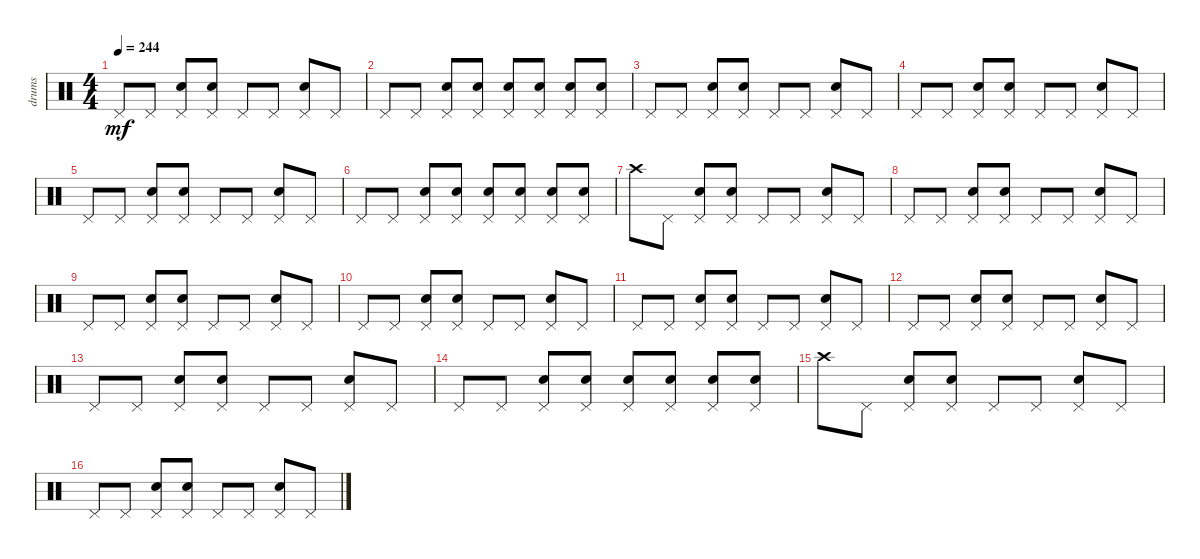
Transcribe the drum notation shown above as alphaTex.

\track ("drums" "drums") {instrument percussion}
\staff {score}
\articulation defaults
\ts (4 4)
\tempo 244
\clef neutral
\ks c "Pedal Hi-Hat (hit)".8{dy mf} "Pedal Hi-Hat (hit)".8
("Pedal Hi-Hat (hit)" "Snare (hit) 2").8 ("Pedal Hi-Hat (hit)" "Snare (hit) 2").8 "Pedal Hi-Hat (hit)".8 "Pedal Hi-Hat (hit)".8 ("Pedal Hi-Hat (hit)" "Snare (hit) 2").8 "Pedal Hi-Hat (hit)".8 |
"Pedal Hi-Hat (hit)".8 "Pedal Hi-Hat (hit)".8 ("Pedal Hi-Hat (hit)" "Snare (hit) 2").8 ("Pedal Hi-Hat (hit)" "Snare (hit) 2").8 ("Pedal Hi-Hat (hit)" "Snare (hit) 2").8 ("Pedal Hi-Hat (hit)" "Snare (hit) 2").8 ("Pedal Hi-Hat (hit)" "Snare (hit) 2").8 ("Pedal Hi-Hat (hit)" "Snare (hit) 2").8 |
"Pedal Hi-Hat (hit)".8 "Pedal Hi-Hat (hit)".8 ("Pedal Hi-Hat (hit)" "Snare (hit) 2").8 ("Pedal Hi-Hat (hit)" "Snare (hit) 2").8 "Pedal Hi-Hat (hit)".8 "Pedal Hi-Hat (hit)".8 ("Pedal Hi-Hat (hit)" "Snare (hit) 2").8 "Pedal Hi-Hat (hit)".8 |
"Pedal Hi-Hat (hit)".8 "Pedal Hi-Hat (hit)".8 ("Pedal Hi-Hat (hit)" "Snare (hit) 2").8 ("Pedal Hi-Hat (hit)" "Snare (hit) 2").8 "Pedal Hi-Hat (hit)".8 "Pedal Hi-Hat (hit)".8 ("Pedal Hi-Hat (hit)" "Snare (hit) 2").8 "Pedal Hi-Hat (hit)".8 |
"Pedal Hi-Hat (hit)".8 "Pedal Hi-Hat (hit)".8 ("Pedal Hi-Hat (hit)" "Snare (hit) 2").8 ("Pedal Hi-Hat (hit)" "Snare (hit) 2").8 "Pedal Hi-Hat (hit)".8 "Pedal Hi-Hat (hit)".8 ("Pedal Hi-Hat (hit)" "Snare (hit) 2").8 "Pedal Hi-Hat (hit)".8 |
"Pedal Hi-Hat (hit)".8 "Pedal Hi-Hat (hit)".8 ("Pedal Hi-Hat (hit)" "Snare (hit) 2").8 ("Pedal Hi-Hat (hit)" "Snare (hit) 2").8 ("Pedal Hi-Hat (hit)" "Snare (hit) 2").8 ("Pedal Hi-Hat (hit)" "Snare (hit) 2").8 ("Pedal Hi-Hat (hit)" "Snare (hit) 2").8 ("Pedal Hi-Hat (hit)" "Snare (hit) 2").8 |
"Crash high (hit)".8 "Pedal Hi-Hat (hit)".8 ("Pedal Hi-Hat (hit)" "Snare (hit) 2").8 ("Pedal Hi-Hat (hit)" "Snare (hit) 2").8 "Pedal Hi-Hat (hit)".8 "Pedal Hi-Hat (hit)".8 ("Pedal Hi-Hat (hit)" "Snare (hit) 2").8 "Pedal Hi-Hat (hit)".8 |
"Pedal Hi-Hat (hit)".8 "Pedal Hi-Hat (hit)".8 ("Pedal Hi-Hat (hit)" "Snare (hit) 2").8 ("Pedal Hi-Hat (hit)" "Snare (hit) 2").8 "Pedal Hi-Hat (hit)".8 "Pedal Hi-Hat (hit)".8 ("Pedal Hi-Hat (hit)" "Snare (hit) 2").8 "Pedal Hi-Hat (hit)".8 |
"Pedal Hi-Hat (hit)".8 "Pedal Hi-Hat (hit)".8 ("Pedal Hi-Hat (hit)" "Snare (hit) 2").8 ("Pedal Hi-Hat (hit)" "Snare (hit) 2").8 "Pedal Hi-Hat (hit)".8 "Pedal Hi-Hat (hit)".8 ("Pedal Hi-Hat (hit)" "Snare (hit) 2").8 "Pedal Hi-Hat (hit)".8 |
"Pedal Hi-Hat (hit)".8 "Pedal Hi-Hat (hit)".8 ("Pedal Hi-Hat (hit)" "Snare (hit) 2").8 ("Pedal Hi-Hat (hit)" "Snare (hit) 2").8 "Pedal Hi-Hat (hit)".8 "Pedal Hi-Hat (hit)".8 ("Pedal Hi-Hat (hit)" "Snare (hit) 2").8 "Pedal Hi-Hat (hit)".8 |
"Pedal Hi-Hat (hit)".8 "Pedal Hi-Hat (hit)".8 ("Pedal Hi-Hat (hit)" "Snare (hit) 2").8 ("Pedal Hi-Hat (hit)" "Snare (hit) 2").8 "Pedal Hi-Hat (hit)".8 "Pedal Hi-Hat (hit)".8 ("Pedal Hi-Hat (hit)" "Snare (hit) 2").8 "Pedal Hi-Hat (hit)".8 |
"Pedal Hi-Hat (hit)".8 "Pedal Hi-Hat (hit)".8 ("Pedal Hi-Hat (hit)" "Snare (hit) 2").8 ("Pedal Hi-Hat (hit)" "Snare (hit) 2").8 "Pedal Hi-Hat (hit)".8 "Pedal Hi-Hat (hit)".8 ("Pedal Hi-Hat (hit)" "Snare (hit) 2").8 "Pedal Hi-Hat (hit)".8 |
"Pedal Hi-Hat (hit)".8 "Pedal Hi-Hat (hit)".8 ("Pedal Hi-Hat (hit)" "Snare (hit) 2").8 ("Pedal Hi-Hat (hit)" "Snare (hit) 2").8 "Pedal Hi-Hat (hit)".8 "Pedal Hi-Hat (hit)".8 ("Pedal Hi-Hat (hit)" "Snare (hit) 2").8 "Pedal Hi-Hat (hit)".8 |
"Pedal Hi-Hat (hit)".8 "Pedal Hi-Hat (hit)".8 ("Pedal Hi-Hat (hit)" "Snare (hit) 2").8 ("Pedal Hi-Hat (hit)" "Snare (hit) 2").8 ("Pedal Hi-Hat (hit)" "Snare (hit) 2").8 ("Pedal Hi-Hat (hit)" "Snare (hit) 2").8 ("Pedal Hi-Hat (hit)" "Snare (hit) 2").8 ("Pedal Hi-Hat (hit)" "Snare (hit) 2").8 |
"Crash high (hit)".8 "Pedal Hi-Hat (hit)".8 ("Pedal Hi-Hat (hit)" "Snare (hit) 2").8 ("Pedal Hi-Hat (hit)" "Snare (hit) 2").8 "Pedal Hi-Hat (hit)".8 "Pedal Hi-Hat (hit)".8 ("Pedal Hi-Hat (hit)" "Snare (hit) 2").8 "Pedal Hi-Hat (hit)".8 |
"Pedal Hi-Hat (hit)".8 "Pedal Hi-Hat (hit)".8 ("Pedal Hi-Hat (hit)" "Snare (hit) 2").8 ("Pedal Hi-Hat (hit)" "Snare (hit) 2").8 "Pedal Hi-Hat (hit)".8 "Pedal Hi-Hat (hit)".8 ("Pedal Hi-Hat (hit)" "Snare (hit) 2").8 "Pedal Hi-Hat (hit)".8
